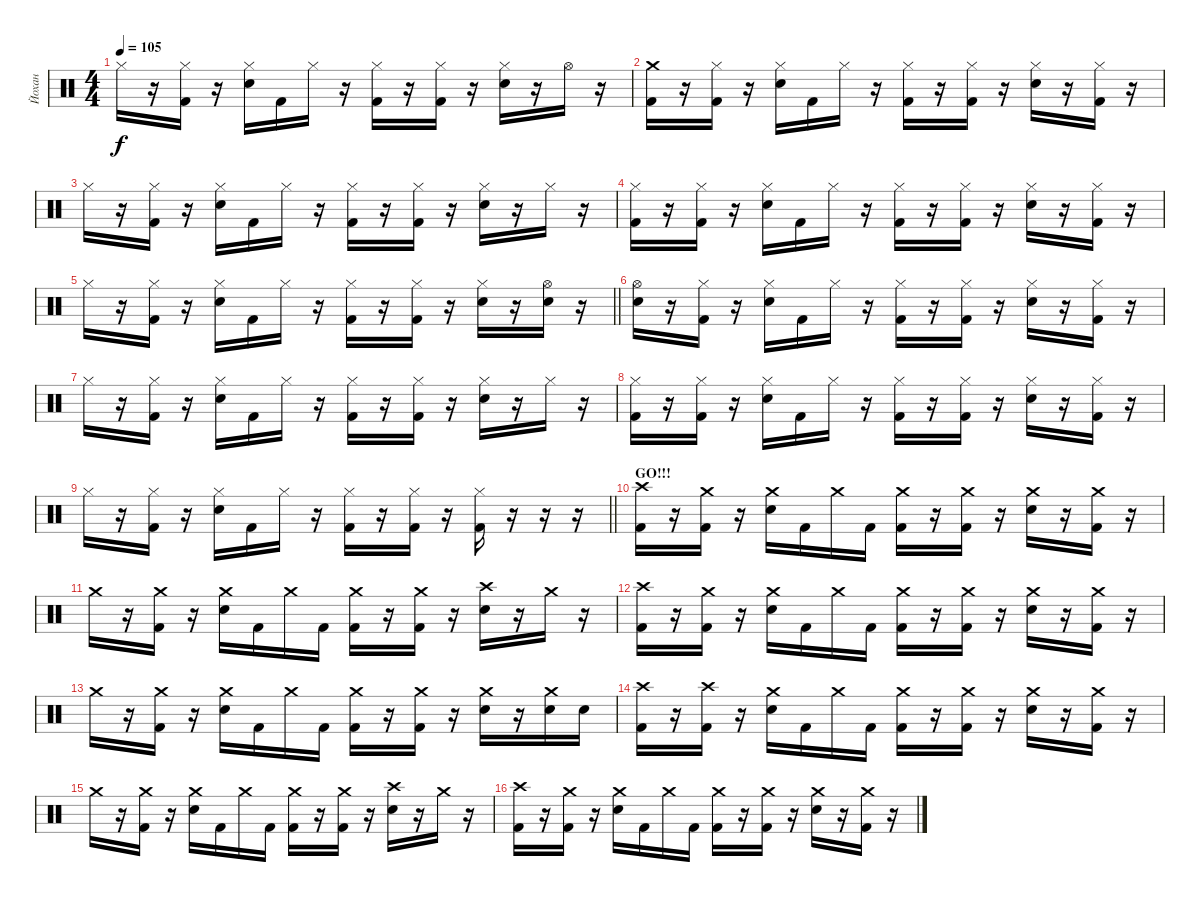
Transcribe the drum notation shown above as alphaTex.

\track ("Йохан" "Йохан") {instrument percussion}
\staff {score}
\articulation defaults
\ts (4 4)
\tempo 105
\clef neutral
\ks c "Hi-Hat (closed)".16{dy f}
r.16 ("Hi-Hat (closed)" "Kick (hit) 2").16 r.16 ("Hi-Hat (closed)" "Snare (hit) 2").16 "Kick (hit) 2".16 "Hi-Hat (closed)".16 r.16 ("Hi-Hat (closed)" "Kick (hit) 2").16 r.16 ("Hi-Hat (closed)" "Kick (hit) 2").16 r.16 ("Hi-Hat (closed)" "Snare (hit) 2").16 r.16 "Hi-Hat (open)".16 r.16 |
("Crash medium (hit)" "Kick (hit) 2").16 r.16 ("Hi-Hat (closed)" "Kick (hit) 2").16 r.16 ("Hi-Hat (closed)" "Snare (hit) 2").16 "Kick (hit) 2".16 "Hi-Hat (closed)".16 r.16 ("Hi-Hat (closed)" "Kick (hit) 2").16 r.16 ("Hi-Hat (closed)" "Kick (hit) 2").16 r.16 ("Hi-Hat (closed)" "Snare (hit) 2").16 r.16 ("Hi-Hat (closed)" "Kick (hit) 2").16 r.16 |
"Hi-Hat (closed)".16 r.16 ("Hi-Hat (closed)" "Kick (hit) 2").16 r.16 ("Hi-Hat (closed)" "Snare (hit) 2").16 "Kick (hit) 2".16 "Hi-Hat (closed)".16 r.16 ("Hi-Hat (closed)" "Kick (hit) 2").16 r.16 ("Hi-Hat (closed)" "Kick (hit) 2").16 r.16 ("Hi-Hat (closed)" "Snare (hit) 2").16 r.16 "Hi-Hat (closed)".16 r.16 |
("Hi-Hat (closed)" "Kick (hit) 2").16 r.16 ("Hi-Hat (closed)" "Kick (hit) 2").16 r.16 ("Hi-Hat (closed)" "Snare (hit) 2").16 "Kick (hit) 2".16 "Hi-Hat (closed)".16 r.16 ("Hi-Hat (closed)" "Kick (hit) 2").16 r.16 ("Hi-Hat (closed)" "Kick (hit) 2").16 r.16 ("Hi-Hat (closed)" "Snare (hit) 2").16 r.16 ("Hi-Hat (closed)" "Kick (hit) 2").16 r.16 |
\barLineRight lightlight "Hi-Hat (closed)".16
r.16 ("Hi-Hat (closed)" "Kick (hit) 2").16 r.16 ("Hi-Hat (closed)" "Snare (hit) 2").16 "Kick (hit) 2".16 "Hi-Hat (closed)".16 r.16 ("Hi-Hat (closed)" "Kick (hit) 2").16 r.16 ("Hi-Hat (closed)" "Kick (hit) 2").16 r.16 ("Hi-Hat (closed)" "Snare (hit) 2").16 r.16 ("Hi-Hat (open)" "Snare (hit) 2").16 r.16 |
("Hi-Hat (open)" "Snare (hit) 2").16 r.16 ("Hi-Hat (closed)" "Kick (hit) 2").16 r.16 ("Hi-Hat (closed)" "Snare (hit) 2").16 "Kick (hit) 2".16 "Hi-Hat (closed)".16 r.16 ("Hi-Hat (closed)" "Kick (hit) 2").16 r.16 ("Hi-Hat (closed)" "Kick (hit) 2").16 r.16 ("Hi-Hat (closed)" "Snare (hit) 2").16 r.16 ("Hi-Hat (closed)" "Kick (hit) 2").16 r.16 |
"Hi-Hat (closed)".16 r.16 ("Hi-Hat (closed)" "Kick (hit) 2").16 r.16 ("Hi-Hat (closed)" "Snare (hit) 2").16 "Kick (hit) 2".16 "Hi-Hat (closed)".16 r.16 ("Hi-Hat (closed)" "Kick (hit) 2").16 r.16 ("Hi-Hat (closed)" "Kick (hit) 2").16 r.16 ("Hi-Hat (closed)" "Snare (hit) 2").16 r.16 "Hi-Hat (closed)".16 r.16 |
("Hi-Hat (closed)" "Kick (hit) 2").16 r.16 ("Hi-Hat (closed)" "Kick (hit) 2").16 r.16 ("Hi-Hat (closed)" "Snare (hit) 2").16 "Kick (hit) 2".16 "Hi-Hat (closed)".16 r.16 ("Hi-Hat (closed)" "Kick (hit) 2").16 r.16 ("Hi-Hat (closed)" "Kick (hit) 2").16 r.16 ("Hi-Hat (closed)" "Snare (hit) 2").16 r.16 ("Hi-Hat (closed)" "Kick (hit) 2").16 r.16 |
\barLineRight lightlight "Hi-Hat (closed)".16
r.16 ("Hi-Hat (closed)" "Kick (hit) 2").16 r.16 ("Hi-Hat (closed)" "Snare (hit) 2").16 "Kick (hit) 2".16 "Hi-Hat (closed)".16 r.16 ("Hi-Hat (closed)" "Kick (hit) 2").16 r.16 ("Hi-Hat (closed)" "Kick (hit) 2").16 r.16 ("Hi-Hat (closed)" "Kick (hit) 2").16 r.16 r.16 r.16 |
\section ("" "GO!!!")
("Crash high (hit)" "Kick (hit) 2").16 r.16 ("Crash medium (hit)" "Kick (hit) 2").16 r.16 ("Crash medium (hit)" "Snare (hit) 2").16 "Kick (hit) 2".16 "Crash medium (hit)".16 "Kick (hit) 2".16 ("Crash medium (hit)" "Kick (hit) 2").16 r.16 ("Crash medium (hit)" "Kick (hit) 2").16 r.16 ("Crash medium (hit)" "Snare (hit) 2").16 r.16 ("Crash medium (hit)" "Kick (hit) 2").16 r.16 |
"Crash medium (hit)".16 r.16 ("Crash medium (hit)" "Kick (hit) 2").16 r.16 ("Crash medium (hit)" "Snare (hit) 2").16 "Kick (hit) 2".16 "Crash medium (hit)".16 "Kick (hit) 2".16 ("Crash medium (hit)" "Kick (hit) 2").16 r.16 ("Crash medium (hit)" "Kick (hit) 2").16 r.16 ("Crash high (hit)" "Snare (hit) 2").16 r.16 "Crash medium (hit)".16 r.16 |
("Crash high (hit)" "Kick (hit) 2").16 r.16 ("Crash medium (hit)" "Kick (hit) 2").16 r.16 ("Crash medium (hit)" "Snare (hit) 2").16 "Kick (hit) 2".16 "Crash medium (hit)".16 "Kick (hit) 2".16 ("Crash medium (hit)" "Kick (hit) 2").16 r.16 ("Crash medium (hit)" "Kick (hit) 2").16 r.16 ("Crash medium (hit)" "Snare (hit) 2").16 r.16 ("Crash medium (hit)" "Kick (hit) 2").16 r.16 |
"Crash medium (hit)".16 r.16 ("Crash medium (hit)" "Kick (hit) 2").16 r.16 ("Crash medium (hit)" "Snare (hit) 2").16 "Kick (hit) 2".16 "Crash medium (hit)".16 "Kick (hit) 2".16 ("Crash medium (hit)" "Kick (hit) 2").16 r.16 ("Crash medium (hit)" "Kick (hit) 2").16 r.16 ("Crash medium (hit)" "Snare (hit) 2").16 r.16 ("Crash medium (hit)" "Snare (hit) 2").16 "Snare (hit) 2".16 |
("Crash high (hit)" "Kick (hit) 2").16 r.16 ("Crash high (hit)" "Kick (hit) 2").16 r.16 ("Crash medium (hit)" "Snare (hit) 2").16 "Kick (hit) 2".16 "Crash medium (hit)".16 "Kick (hit) 2".16 ("Crash medium (hit)" "Kick (hit) 2").16 r.16 ("Crash medium (hit)" "Kick (hit) 2").16 r.16 ("Crash medium (hit)" "Snare (hit) 2").16 r.16 ("Crash medium (hit)" "Kick (hit) 2").16 r.16 |
"Crash medium (hit)".16 r.16 ("Crash medium (hit)" "Kick (hit) 2").16 r.16 ("Crash medium (hit)" "Snare (hit) 2").16 "Kick (hit) 2".16 "Crash medium (hit)".16 "Kick (hit) 2".16 ("Crash medium (hit)" "Kick (hit) 2").16 r.16 ("Crash medium (hit)" "Kick (hit) 2").16 r.16 ("Crash high (hit)" "Snare (hit) 2").16 r.16 "Crash medium (hit)".16 r.16 |
("Crash high (hit)" "Kick (hit) 2").16 r.16 ("Crash medium (hit)" "Kick (hit) 2").16 r.16 ("Crash medium (hit)" "Snare (hit) 2").16 "Kick (hit) 2".16 "Crash medium (hit)".16 "Kick (hit) 2".16 ("Crash medium (hit)" "Kick (hit) 2").16 r.16 ("Crash medium (hit)" "Kick (hit) 2").16 r.16 ("Crash medium (hit)" "Snare (hit) 2").16 r.16 ("Crash medium (hit)" "Kick (hit) 2").16 r.16
